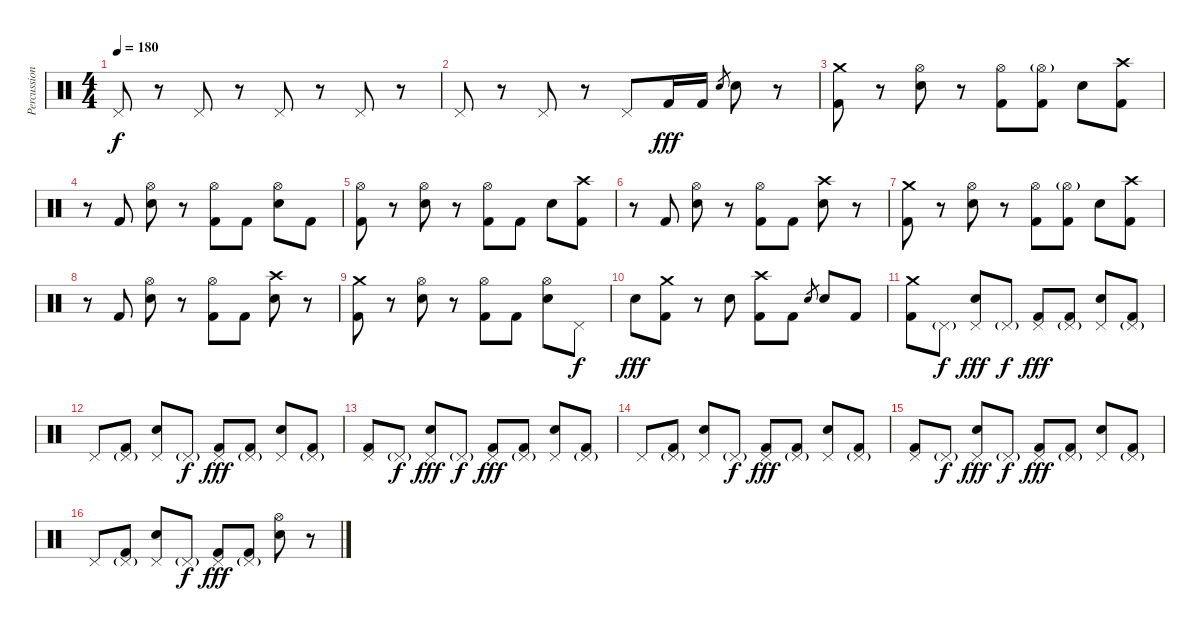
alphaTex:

\track ("Percussions" "Percussion") {mute instrument percussion}
\staff {score}
\articulation defaults
\ts (4 4)
\tempo 180
\clef neutral
\ks c "Pedal Hi-Hat (hit)".8{dy f}
r.8 "Pedal Hi-Hat (hit)".8 r.8 "Pedal Hi-Hat (hit)".8 r.8 "Pedal Hi-Hat (hit)".8 r.8 |
"Pedal Hi-Hat (hit)".8 r.8 "Pedal Hi-Hat (hit)".8 r.8 "Pedal Hi-Hat (hit)".8 "Kick (hit) 2".16{dy fff} "Kick (hit) 2".16 "Electric Snare (hit)".8{gr} "Electric Snare (hit)".8 r.8 |
("Crash medium (hit)" "Kick (hit) 2").8 r.8 ("Hi-Hat (open)" "Electric Snare (hit)").8 r.8 ("Hi-Hat (open)" "Kick (hit) 2").8 ("Hi-Hat (open)"{g} "Kick (hit) 2").8 "Electric Snare (hit)".8 ("Crash high (hit)" "Kick (hit) 2").8 |
r.8 "Kick (hit) 2".8 ("Hi-Hat (open)" "Electric Snare (hit)").8 r.8 ("Hi-Hat (open)" "Kick (hit) 2").8 "Kick (hit) 2".8 ("Hi-Hat (open)" "Electric Snare (hit)").8 "Kick (hit) 2".8 |
("Hi-Hat (open)" "Kick (hit) 2").8 r.8 ("Hi-Hat (open)" "Electric Snare (hit)").8 r.8 ("Hi-Hat (open)" "Kick (hit) 2").8 "Kick (hit) 2".8 "Electric Snare (hit)".8 ("Crash high (hit)" "Kick (hit) 2").8 |
r.8 "Kick (hit) 2".8 ("Hi-Hat (open)" "Electric Snare (hit)").8 r.8 ("Hi-Hat (open)" "Kick (hit) 2").8 "Kick (hit) 2".8 ("Crash high (hit)" "Electric Snare (hit)").8 r.8 |
("Crash medium (hit)" "Kick (hit) 2").8 r.8 ("Hi-Hat (open)" "Electric Snare (hit)").8 r.8 ("Hi-Hat (open)" "Kick (hit) 2").8 ("Hi-Hat (open)"{g} "Kick (hit) 2").8 "Electric Snare (hit)".8 ("Crash high (hit)" "Kick (hit) 2").8 |
r.8 "Kick (hit) 2".8 ("Hi-Hat (open)" "Electric Snare (hit)").8 r.8 ("Hi-Hat (open)" "Kick (hit) 2").8 "Kick (hit) 2".8 ("Crash high (hit)" "Electric Snare (hit)").8 r.8 |
("Crash medium (hit)" "Kick (hit) 2").8 r.8 ("Hi-Hat (open)" "Electric Snare (hit)").8 r.8 ("Hi-Hat (open)" "Kick (hit) 2").8 "Kick (hit) 2".8 ("Hi-Hat (open)" "Electric Snare (hit)").8 "Pedal Hi-Hat (hit)".8{dy f} |
"Electric Snare (hit)".8{dy fff} ("Crash medium (hit)" "Kick (hit) 2").8 r.8 "Electric Snare (hit)".8 ("Crash high (hit)" "Kick (hit) 2").8 "Kick (hit) 2".8 "Electric Snare (hit)".8{gr} "Electric Snare (hit)".8 "Kick (hit) 2".8 |
("Crash medium (hit)" "Kick (hit) 2").8 "Pedal Hi-Hat (hit)"{g}.8{dy f} ("Pedal Hi-Hat (hit)" "Electric Snare (hit)").8{dy fff} "Pedal Hi-Hat (hit)"{g}.8{dy f} ("Pedal Hi-Hat (hit)" "Kick (hit) 2").8{dy fff} ("Pedal Hi-Hat (hit)"{g} "Kick (hit) 2").8 ("Pedal Hi-Hat (hit)" "Electric Snare (hit)").8 ("Pedal Hi-Hat (hit)"{g} "Kick (hit) 2").8 |
"Pedal Hi-Hat (hit)".8 ("Pedal Hi-Hat (hit)"{g} "Kick (hit) 2").8 ("Pedal Hi-Hat (hit)" "Electric Snare (hit)").8 "Pedal Hi-Hat (hit)"{g}.8{dy f} ("Pedal Hi-Hat (hit)" "Kick (hit) 2").8{dy fff} ("Pedal Hi-Hat (hit)"{g} "Kick (hit) 2").8 ("Pedal Hi-Hat (hit)" "Electric Snare (hit)").8 ("Pedal Hi-Hat (hit)"{g} "Kick (hit) 2").8 |
("Pedal Hi-Hat (hit)" "Kick (hit) 2").8 "Pedal Hi-Hat (hit)"{g}.8{dy f} ("Pedal Hi-Hat (hit)" "Electric Snare (hit)").8{dy fff} "Pedal Hi-Hat (hit)"{g}.8{dy f} ("Pedal Hi-Hat (hit)" "Kick (hit) 2").8{dy fff} ("Pedal Hi-Hat (hit)"{g} "Kick (hit) 2").8 ("Pedal Hi-Hat (hit)" "Electric Snare (hit)").8 ("Pedal Hi-Hat (hit)"{g} "Kick (hit) 2").8 |
"Pedal Hi-Hat (hit)".8 ("Pedal Hi-Hat (hit)"{g} "Kick (hit) 2").8 ("Pedal Hi-Hat (hit)" "Electric Snare (hit)").8 "Pedal Hi-Hat (hit)"{g}.8{dy f} ("Pedal Hi-Hat (hit)" "Kick (hit) 2").8{dy fff} ("Pedal Hi-Hat (hit)"{g} "Kick (hit) 2").8 ("Pedal Hi-Hat (hit)" "Electric Snare (hit)").8 ("Pedal Hi-Hat (hit)"{g} "Kick (hit) 2").8 |
("Pedal Hi-Hat (hit)" "Kick (hit) 2").8 "Pedal Hi-Hat (hit)"{g}.8{dy f} ("Pedal Hi-Hat (hit)" "Electric Snare (hit)").8{dy fff} "Pedal Hi-Hat (hit)"{g}.8{dy f} ("Pedal Hi-Hat (hit)" "Kick (hit) 2").8{dy fff} ("Pedal Hi-Hat (hit)"{g} "Kick (hit) 2").8 ("Pedal Hi-Hat (hit)" "Electric Snare (hit)").8 ("Pedal Hi-Hat (hit)"{g} "Kick (hit) 2").8 |
"Pedal Hi-Hat (hit)".8 ("Pedal Hi-Hat (hit)"{g} "Kick (hit) 2").8 ("Pedal Hi-Hat (hit)" "Electric Snare (hit)").8 "Pedal Hi-Hat (hit)"{g}.8{dy f} ("Pedal Hi-Hat (hit)" "Kick (hit) 2").8{dy fff} ("Pedal Hi-Hat (hit)"{g} "Kick (hit) 2").8 ("Hi-Hat (open)" "Electric Snare (hit)").8 r.8
